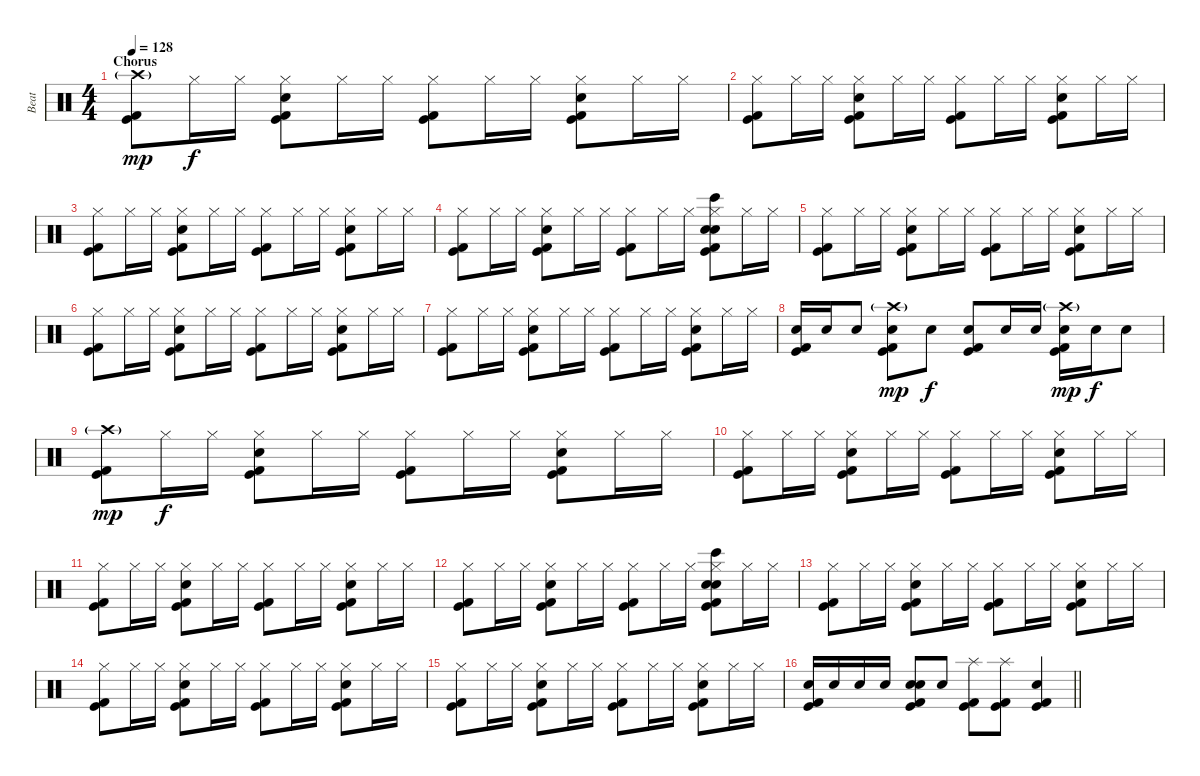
\track ("Beat" "Beat") {instrument percussion}
\staff {score}
\articulation defaults
\ts (4 4)
\section ("" "Chorus")
\tempo 128
\clef neutral
\ks c
("Crash high (hit)"{g} "Kick (hit) 2" "Kick (hit)").8{dy mp} "Hi-Hat (closed)".16{dy f} "Hi-Hat (closed)".16 ("Hi-Hat (closed)" "Hand Clap (hit)" "Kick (hit) 2" "Kick (hit)").8 "Hi-Hat (closed)".16 "Hi-Hat (closed)".16 ("Hi-Hat (closed)" "Kick (hit) 2" "Kick (hit)").8 "Hi-Hat (closed)".16 "Hi-Hat (closed)".16 ("Hi-Hat (closed)" "Hand Clap (hit)" "Kick (hit) 2" "Kick (hit)").8 "Hi-Hat (closed)".16 "Hi-Hat (closed)".16 |
("Hi-Hat (closed)" "Kick (hit) 2" "Kick (hit)").8 "Hi-Hat (closed)".16 "Hi-Hat (closed)".16 ("Hi-Hat (closed)" "Hand Clap (hit)" "Kick (hit) 2" "Kick (hit)").8 "Hi-Hat (closed)".16 "Hi-Hat (closed)".16 ("Hi-Hat (closed)" "Kick (hit) 2" "Kick (hit)").8 "Hi-Hat (closed)".16 "Hi-Hat (closed)".16 ("Hi-Hat (closed)" "Hand Clap (hit)" "Kick (hit) 2" "Kick (hit)").8 "Hi-Hat (closed)".16 "Hi-Hat (closed)".16 |
("Hi-Hat (closed)" "Kick (hit) 2" "Kick (hit)").8 "Hi-Hat (closed)".16 "Hi-Hat (closed)".16 ("Hi-Hat (closed)" "Hand Clap (hit)" "Kick (hit) 2" "Kick (hit)").8 "Hi-Hat (closed)".16 "Hi-Hat (closed)".16 ("Hi-Hat (closed)" "Kick (hit) 2" "Kick (hit)").8 "Hi-Hat (closed)".16 "Hi-Hat (closed)".16 ("Hi-Hat (closed)" "Hand Clap (hit)" "Kick (hit) 2" "Kick (hit)").8 "Hi-Hat (closed)".16 "Hi-Hat (closed)".16 |
("Hi-Hat (closed)" "Kick (hit) 2" "Kick (hit)").8 "Hi-Hat (closed)".16 "Hi-Hat (closed)".16 ("Hi-Hat (closed)" "Hand Clap (hit)" "Kick (hit) 2" "Kick (hit)").8 "Hi-Hat (closed)".16 "Hi-Hat (closed)".16 ("Hi-Hat (closed)" "Kick (hit) 2" "Kick (hit)").8 "Hi-Hat (closed)".16 "Hi-Hat (closed)".16 ("Bongo High (hit)" "Hi-Hat (closed)" "Hand Clap (hit)" "Snare (hit) 2" "Kick (hit) 2" "Kick (hit)").8 "Hi-Hat (closed)".16 "Hi-Hat (closed)".16 |
("Hi-Hat (closed)" "Kick (hit) 2" "Kick (hit)").8 "Hi-Hat (closed)".16 "Hi-Hat (closed)".16 ("Hi-Hat (closed)" "Hand Clap (hit)" "Kick (hit) 2" "Kick (hit)").8 "Hi-Hat (closed)".16 "Hi-Hat (closed)".16 ("Hi-Hat (closed)" "Kick (hit) 2" "Kick (hit)").8 "Hi-Hat (closed)".16 "Hi-Hat (closed)".16 ("Hi-Hat (closed)" "Hand Clap (hit)" "Kick (hit) 2" "Kick (hit)").8 "Hi-Hat (closed)".16 "Hi-Hat (closed)".16 |
("Hi-Hat (closed)" "Kick (hit) 2" "Kick (hit)").8 "Hi-Hat (closed)".16 "Hi-Hat (closed)".16 ("Hi-Hat (closed)" "Hand Clap (hit)" "Kick (hit) 2" "Kick (hit)").8 "Hi-Hat (closed)".16 "Hi-Hat (closed)".16 ("Hi-Hat (closed)" "Kick (hit) 2" "Kick (hit)").8 "Hi-Hat (closed)".16 "Hi-Hat (closed)".16 ("Hi-Hat (closed)" "Hand Clap (hit)" "Kick (hit) 2" "Kick (hit)").8 "Hi-Hat (closed)".16 "Hi-Hat (closed)".16 |
("Hi-Hat (closed)" "Kick (hit) 2" "Kick (hit)").8 "Hi-Hat (closed)".16 "Hi-Hat (closed)".16 ("Hi-Hat (closed)" "Hand Clap (hit)" "Kick (hit) 2" "Kick (hit)").8 "Hi-Hat (closed)".16 "Hi-Hat (closed)".16 ("Hi-Hat (closed)" "Kick (hit) 2" "Kick (hit)").8 "Hi-Hat (closed)".16 "Hi-Hat (closed)".16 ("Hi-Hat (closed)" "Hand Clap (hit)" "Kick (hit) 2" "Kick (hit)").8 "Hi-Hat (closed)".16 "Hi-Hat (closed)".16 |
("Electric Snare (hit)" "Kick (hit) 2" "Kick (hit)").16 "Electric Snare (hit)".16 "Electric Snare (hit)".8 ("Crash high (hit)"{g} "Electric Snare (hit)" "Kick (hit) 2" "Kick (hit)").8{dy mp} "Electric Snare (hit)".8{dy f} ("Snare (hit) 2" "Kick (hit) 2" "Kick (hit)").8 "Electric Snare (hit)".16 "Electric Snare (hit)".16 ("Crash high (hit)"{g} "Electric Snare (hit)" "Kick (hit) 2" "Kick (hit)").16{dy mp} "Snare (hit) 2".16{dy f} "Snare (hit) 2".8 |
("Crash high (hit)"{g} "Kick (hit) 2" "Kick (hit)").8{dy mp} "Hi-Hat (closed)".16{dy f} "Hi-Hat (closed)".16 ("Hi-Hat (closed)" "Hand Clap (hit)" "Kick (hit) 2" "Kick (hit)").8 "Hi-Hat (closed)".16 "Hi-Hat (closed)".16 ("Hi-Hat (closed)" "Kick (hit) 2" "Kick (hit)").8 "Hi-Hat (closed)".16 "Hi-Hat (closed)".16 ("Hi-Hat (closed)" "Hand Clap (hit)" "Kick (hit) 2" "Kick (hit)").8 "Hi-Hat (closed)".16 "Hi-Hat (closed)".16 |
("Hi-Hat (closed)" "Kick (hit) 2" "Kick (hit)").8 "Hi-Hat (closed)".16 "Hi-Hat (closed)".16 ("Hi-Hat (closed)" "Hand Clap (hit)" "Kick (hit) 2" "Kick (hit)").8 "Hi-Hat (closed)".16 "Hi-Hat (closed)".16 ("Hi-Hat (closed)" "Kick (hit) 2" "Kick (hit)").8 "Hi-Hat (closed)".16 "Hi-Hat (closed)".16 ("Hi-Hat (closed)" "Hand Clap (hit)" "Kick (hit) 2" "Kick (hit)").8 "Hi-Hat (closed)".16 "Hi-Hat (closed)".16 |
("Hi-Hat (closed)" "Kick (hit) 2" "Kick (hit)").8 "Hi-Hat (closed)".16 "Hi-Hat (closed)".16 ("Hi-Hat (closed)" "Hand Clap (hit)" "Kick (hit) 2" "Kick (hit)").8 "Hi-Hat (closed)".16 "Hi-Hat (closed)".16 ("Hi-Hat (closed)" "Kick (hit) 2" "Kick (hit)").8 "Hi-Hat (closed)".16 "Hi-Hat (closed)".16 ("Hi-Hat (closed)" "Hand Clap (hit)" "Kick (hit) 2" "Kick (hit)").8 "Hi-Hat (closed)".16 "Hi-Hat (closed)".16 |
("Hi-Hat (closed)" "Kick (hit) 2" "Kick (hit)").8 "Hi-Hat (closed)".16 "Hi-Hat (closed)".16 ("Hi-Hat (closed)" "Hand Clap (hit)" "Kick (hit) 2" "Kick (hit)").8 "Hi-Hat (closed)".16 "Hi-Hat (closed)".16 ("Hi-Hat (closed)" "Kick (hit) 2" "Kick (hit)").8 "Hi-Hat (closed)".16 "Hi-Hat (closed)".16 ("Bongo High (hit)" "Hi-Hat (closed)" "Hand Clap (hit)" "Snare (hit) 2" "Kick (hit) 2" "Kick (hit)").8 "Hi-Hat (closed)".16 "Hi-Hat (closed)".16 |
("Hi-Hat (closed)" "Kick (hit) 2" "Kick (hit)").8 "Hi-Hat (closed)".16 "Hi-Hat (closed)".16 ("Hi-Hat (closed)" "Hand Clap (hit)" "Kick (hit) 2" "Kick (hit)").8 "Hi-Hat (closed)".16 "Hi-Hat (closed)".16 ("Hi-Hat (closed)" "Kick (hit) 2" "Kick (hit)").8 "Hi-Hat (closed)".16 "Hi-Hat (closed)".16 ("Hi-Hat (closed)" "Hand Clap (hit)" "Kick (hit) 2" "Kick (hit)").8 "Hi-Hat (closed)".16 "Hi-Hat (closed)".16 |
("Hi-Hat (closed)" "Kick (hit) 2" "Kick (hit)").8 "Hi-Hat (closed)".16 "Hi-Hat (closed)".16 ("Hi-Hat (closed)" "Hand Clap (hit)" "Kick (hit) 2" "Kick (hit)").8 "Hi-Hat (closed)".16 "Hi-Hat (closed)".16 ("Hi-Hat (closed)" "Kick (hit) 2" "Kick (hit)").8 "Hi-Hat (closed)".16 "Hi-Hat (closed)".16 ("Hi-Hat (closed)" "Hand Clap (hit)" "Kick (hit) 2" "Kick (hit)").8 "Hi-Hat (closed)".16 "Hi-Hat (closed)".16 |
("Hi-Hat (closed)" "Kick (hit) 2" "Kick (hit)").8 "Hi-Hat (closed)".16 "Hi-Hat (closed)".16 ("Hi-Hat (closed)" "Hand Clap (hit)" "Kick (hit) 2" "Kick (hit)").8 "Hi-Hat (closed)".16 "Hi-Hat (closed)".16 ("Hi-Hat (closed)" "Kick (hit) 2" "Kick (hit)").8 "Hi-Hat (closed)".16 "Hi-Hat (closed)".16 ("Hi-Hat (closed)" "Hand Clap (hit)" "Kick (hit) 2" "Kick (hit)").8 "Hi-Hat (closed)".16 "Hi-Hat (closed)".16 |
\barLineRight lightlight
("Electric Snare (hit)" "Kick (hit) 2" "Kick (hit)").16 "Electric Snare (hit)".16 "Electric Snare (hit)".16 "Electric Snare (hit)".16 ("Hand Clap (hit)" "Electric Snare (hit)" "Kick (hit) 2" "Kick (hit)").8 "Electric Snare (hit)".8 ("Splash (hit)" "Kick (hit) 2" "Kick (hit)").8 ("Splash (hit)" "Kick (hit) 2" "Kick (hit)").8 ("Snare (hit) 2" "Kick (hit) 2" "Kick (hit)").4
